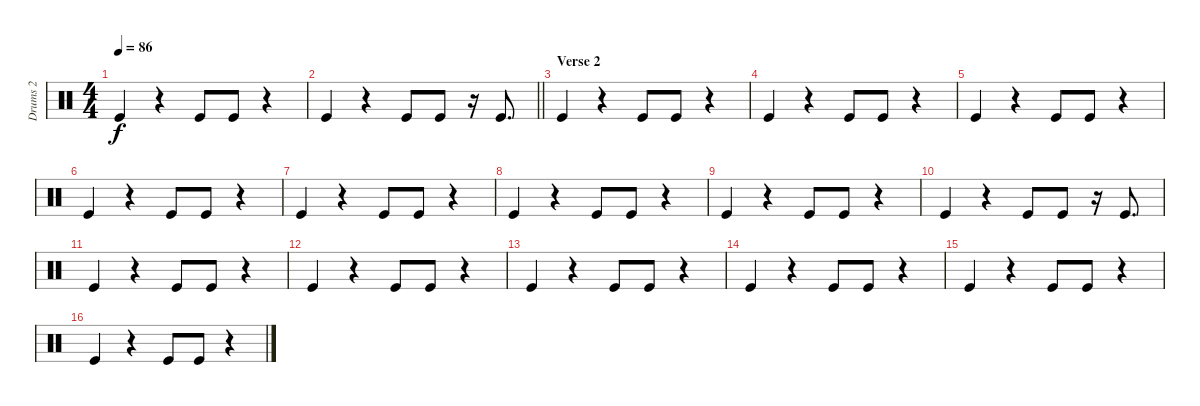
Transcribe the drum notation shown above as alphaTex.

\track ("Drums 2" "Drums 2") {instrument percussion}
\staff {score}
\articulation defaults
\ts (4 4)
\tempo 86
\clef neutral
\ks c "Kick (hit)".4{dy f}
r.4 "Kick (hit)".8 "Kick (hit)".8 r.4 |
\barLineRight lightlight "Kick (hit)".4
r.4 "Kick (hit)".8 "Kick (hit)".8 r.16 "Kick (hit)".8{d} |
\section ("" "Verse 2")
"Kick (hit)".4 r.4 "Kick (hit)".8 "Kick (hit)".8 r.4 |
"Kick (hit)".4 r.4 "Kick (hit)".8 "Kick (hit)".8 r.4 |
"Kick (hit)".4 r.4 "Kick (hit)".8 "Kick (hit)".8 r.4 |
"Kick (hit)".4 r.4 "Kick (hit)".8 "Kick (hit)".8 r.4 |
"Kick (hit)".4 r.4 "Kick (hit)".8 "Kick (hit)".8 r.4 |
"Kick (hit)".4 r.4 "Kick (hit)".8 "Kick (hit)".8 r.4 |
"Kick (hit)".4 r.4 "Kick (hit)".8 "Kick (hit)".8 r.4 |
"Kick (hit)".4 r.4 "Kick (hit)".8 "Kick (hit)".8 r.16 "Kick (hit)".8{d} |
"Kick (hit)".4 r.4 "Kick (hit)".8 "Kick (hit)".8 r.4 |
"Kick (hit)".4 r.4 "Kick (hit)".8 "Kick (hit)".8 r.4 |
"Kick (hit)".4 r.4 "Kick (hit)".8 "Kick (hit)".8 r.4 |
"Kick (hit)".4 r.4 "Kick (hit)".8 "Kick (hit)".8 r.4 |
"Kick (hit)".4 r.4 "Kick (hit)".8 "Kick (hit)".8 r.4 |
"Kick (hit)".4 r.4 "Kick (hit)".8 "Kick (hit)".8 r.4
